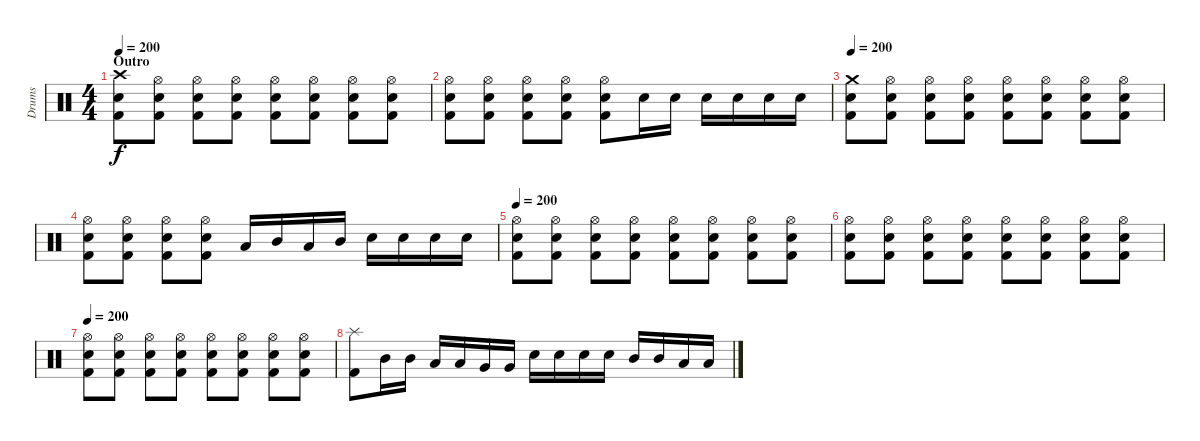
\track ("Drums" "Drums") {instrument percussion}
\staff {score}
\articulation defaults
\ts (4 4)
\section ("" "Outro")
\tempo 200
\clef neutral
\ks c
("Crash high (hit)" "Snare (hit) 2" "Kick (hit) 2").8{dy f} ("Hi-Hat (open)" "Snare (hit) 2" "Kick (hit) 2").8 ("Hi-Hat (open)" "Snare (hit) 2" "Kick (hit) 2").8 ("Hi-Hat (open)" "Snare (hit) 2" "Kick (hit) 2").8 ("Hi-Hat (open)" "Snare (hit) 2" "Kick (hit) 2").8 ("Hi-Hat (open)" "Snare (hit) 2" "Kick (hit) 2").8 ("Hi-Hat (open)" "Snare (hit) 2" "Kick (hit) 2").8 ("Hi-Hat (open)" "Snare (hit) 2" "Kick (hit) 2").8 |
("Hi-Hat (open)" "Snare (hit) 2" "Kick (hit) 2").8 ("Hi-Hat (open)" "Snare (hit) 2" "Kick (hit) 2").8 ("Hi-Hat (open)" "Snare (hit) 2" "Kick (hit) 2").8 ("Hi-Hat (open)" "Snare (hit) 2" "Kick (hit) 2").8 ("Hi-Hat (open)" "Snare (hit) 2" "Kick (hit) 2").8 "Snare (hit) 2".16 "Snare (hit) 2".16 "Snare (hit) 2".16 "Snare (hit) 2".16 "Snare (hit) 2".16 "Snare (hit) 2".16 |
\tempo 200
("Crash medium (hit)" "Snare (hit) 2" "Kick (hit) 2").8 ("Hi-Hat (open)" "Snare (hit) 2" "Kick (hit) 2").8 ("Hi-Hat (open)" "Snare (hit) 2" "Kick (hit) 2").8 ("Hi-Hat (open)" "Snare (hit) 2" "Kick (hit) 2").8 ("Hi-Hat (open)" "Snare (hit) 2" "Kick (hit) 2").8 ("Hi-Hat (open)" "Snare (hit) 2" "Kick (hit) 2").8 ("Hi-Hat (open)" "Snare (hit) 2" "Kick (hit) 2").8 ("Hi-Hat (open)" "Snare (hit) 2" "Kick (hit) 2").8 |
("Hi-Hat (open)" "Snare (hit) 2" "Kick (hit) 2").8 ("Hi-Hat (open)" "Snare (hit) 2" "Kick (hit) 2").8 ("Hi-Hat (open)" "Snare (hit) 2" "Kick (hit) 2").8 ("Hi-Hat (open)" "Snare (hit) 2" "Kick (hit) 2").8 "Low Tom (hit)".16 "Mid Tom (hit)".16 "Low Tom (hit)".16 "Mid Tom (hit)".16 "Snare (hit) 2".16 "Snare (hit) 2".16 "Snare (hit) 2".16 "Snare (hit) 2".16 |
\tempo 200
("Hi-Hat (open)" "Snare (hit) 2" "Kick (hit) 2").8 ("Hi-Hat (open)" "Snare (hit) 2" "Kick (hit) 2").8 ("Hi-Hat (open)" "Snare (hit) 2" "Kick (hit) 2").8 ("Hi-Hat (open)" "Snare (hit) 2" "Kick (hit) 2").8 ("Hi-Hat (open)" "Snare (hit) 2" "Kick (hit) 2").8 ("Hi-Hat (open)" "Snare (hit) 2" "Kick (hit) 2").8 ("Hi-Hat (open)" "Snare (hit) 2" "Kick (hit) 2").8 ("Hi-Hat (open)" "Snare (hit) 2" "Kick (hit) 2").8 |
("Hi-Hat (open)" "Snare (hit) 2" "Kick (hit) 2").8 ("Hi-Hat (open)" "Snare (hit) 2" "Kick (hit) 2").8 ("Hi-Hat (open)" "Snare (hit) 2" "Kick (hit) 2").8 ("Hi-Hat (open)" "Snare (hit) 2" "Kick (hit) 2").8 ("Hi-Hat (open)" "Snare (hit) 2" "Kick (hit) 2").8 ("Hi-Hat (open)" "Snare (hit) 2" "Kick (hit) 2").8 ("Hi-Hat (open)" "Snare (hit) 2" "Kick (hit) 2").8 ("Hi-Hat (open)" "Snare (hit) 2" "Kick (hit) 2").8 |
\tempo 200
("Hi-Hat (open)" "Snare (hit) 2" "Kick (hit) 2").8 ("Hi-Hat (open)" "Snare (hit) 2" "Kick (hit) 2").8 ("Hi-Hat (open)" "Snare (hit) 2" "Kick (hit) 2").8 ("Hi-Hat (open)" "Snare (hit) 2" "Kick (hit) 2").8 ("Hi-Hat (open)" "Snare (hit) 2" "Kick (hit) 2").8 ("Hi-Hat (open)" "Snare (hit) 2" "Kick (hit) 2").8 ("Hi-Hat (open)" "Snare (hit) 2" "Kick (hit) 2").8 ("Hi-Hat (open)" "Snare (hit) 2" "Kick (hit) 2").8 |
("Splash (hit)" "Kick (hit) 2").8 "Mid Tom (hit)".16 "Mid Tom (hit)".16 "Low Tom (hit)".16 "Low Tom (hit)".16 "Very Low Tom (hit)".16 "Very Low Tom (hit)".16 "Snare (hit) 2".16 "Snare (hit) 2".16 "Snare (hit) 2".16 "Snare (hit) 2".16 "Mid Tom (hit)".16 "Mid Tom (hit)".16 "Low Tom (hit)".16 "Low Tom (hit)".16
